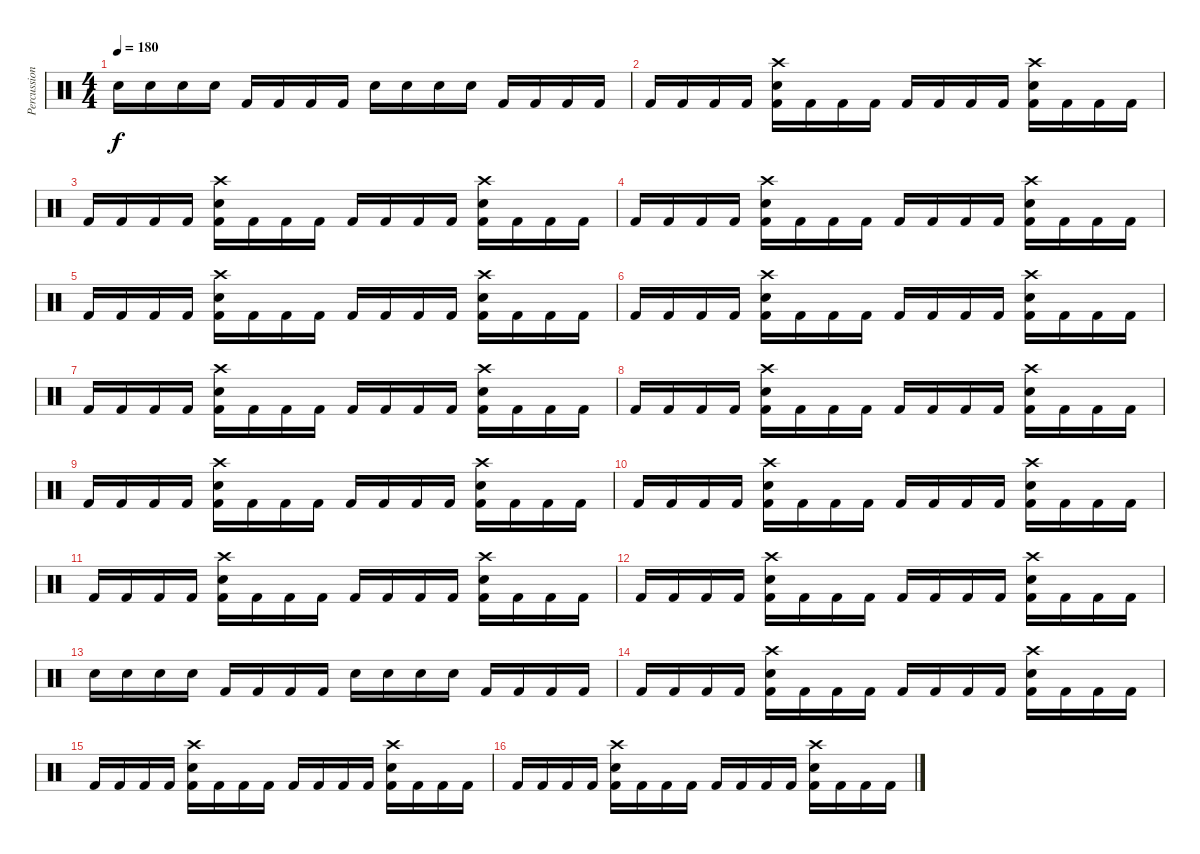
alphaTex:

\track ("Percussion" "Percussion") {instrument percussion}
\staff {score}
\articulation defaults
\ts (4 4)
\tempo 180
\clef neutral
\ks c "Electric Snare (hit)".16{dy f} "Electric Snare (hit)".16 "Electric Snare (hit)".16 "Electric Snare (hit)".16 "Kick (hit) 2".16 "Kick (hit) 2".16 "Kick (hit) 2".16 "Kick (hit) 2".16 "Snare (hit) 2".16 "Snare (hit) 2".16 "Snare (hit) 2".16 "Snare (hit) 2".16 "Kick (hit) 2".16 "Kick (hit) 2".16 "Kick (hit) 2".16 "Kick (hit) 2".16
|
"Kick (hit) 2".16 "Kick (hit) 2".16 "Kick (hit) 2".16 "Kick (hit) 2".16 ("Crash high (hit)" "Kick (hit) 2" "Snare (hit) 2").16 "Kick (hit) 2".16 "Kick (hit) 2".16 "Kick (hit) 2".16 "Kick (hit) 2".16 "Kick (hit) 2".16 "Kick (hit) 2".16 "Kick (hit) 2".16 ("Crash high (hit)" "Kick (hit) 2" "Snare (hit) 2").16 "Kick (hit) 2".16 "Kick (hit) 2".16 "Kick (hit) 2".16 |
"Kick (hit) 2".16 "Kick (hit) 2".16 "Kick (hit) 2".16 "Kick (hit) 2".16 ("Crash high (hit)" "Kick (hit) 2" "Snare (hit) 2").16 "Kick (hit) 2".16 "Kick (hit) 2".16 "Kick (hit) 2".16 "Kick (hit) 2".16 "Kick (hit) 2".16 "Kick (hit) 2".16 "Kick (hit) 2".16 ("Crash high (hit)" "Kick (hit) 2" "Snare (hit) 2").16 "Kick (hit) 2".16 "Kick (hit) 2".16 "Kick (hit) 2".16 |
"Kick (hit) 2".16 "Kick (hit) 2".16 "Kick (hit) 2".16 "Kick (hit) 2".16 ("Crash high (hit)" "Kick (hit) 2" "Snare (hit) 2").16 "Kick (hit) 2".16 "Kick (hit) 2".16 "Kick (hit) 2".16 "Kick (hit) 2".16 "Kick (hit) 2".16 "Kick (hit) 2".16 "Kick (hit) 2".16 ("Crash high (hit)" "Kick (hit) 2" "Snare (hit) 2").16 "Kick (hit) 2".16 "Kick (hit) 2".16 "Kick (hit) 2".16 |
"Kick (hit) 2".16 "Kick (hit) 2".16 "Kick (hit) 2".16 "Kick (hit) 2".16 ("Crash high (hit)" "Kick (hit) 2" "Snare (hit) 2").16 "Kick (hit) 2".16 "Kick (hit) 2".16 "Kick (hit) 2".16 "Kick (hit) 2".16 "Kick (hit) 2".16 "Kick (hit) 2".16 "Kick (hit) 2".16 ("Crash high (hit)" "Kick (hit) 2" "Snare (hit) 2").16 "Kick (hit) 2".16 "Kick (hit) 2".16 "Kick (hit) 2".16 |
"Kick (hit) 2".16 "Kick (hit) 2".16 "Kick (hit) 2".16 "Kick (hit) 2".16 ("Crash high (hit)" "Kick (hit) 2" "Snare (hit) 2").16 "Kick (hit) 2".16 "Kick (hit) 2".16 "Kick (hit) 2".16 "Kick (hit) 2".16 "Kick (hit) 2".16 "Kick (hit) 2".16 "Kick (hit) 2".16 ("Crash high (hit)" "Kick (hit) 2" "Snare (hit) 2").16 "Kick (hit) 2".16 "Kick (hit) 2".16 "Kick (hit) 2".16 |
"Kick (hit) 2".16 "Kick (hit) 2".16 "Kick (hit) 2".16 "Kick (hit) 2".16 ("Crash high (hit)" "Kick (hit) 2" "Snare (hit) 2").16 "Kick (hit) 2".16 "Kick (hit) 2".16 "Kick (hit) 2".16 "Kick (hit) 2".16 "Kick (hit) 2".16 "Kick (hit) 2".16 "Kick (hit) 2".16 ("Crash high (hit)" "Kick (hit) 2" "Snare (hit) 2").16 "Kick (hit) 2".16 "Kick (hit) 2".16 "Kick (hit) 2".16 |
"Kick (hit) 2".16 "Kick (hit) 2".16 "Kick (hit) 2".16 "Kick (hit) 2".16 ("Crash high (hit)" "Kick (hit) 2" "Snare (hit) 2").16 "Kick (hit) 2".16 "Kick (hit) 2".16 "Kick (hit) 2".16 "Kick (hit) 2".16 "Kick (hit) 2".16 "Kick (hit) 2".16 "Kick (hit) 2".16 ("Crash high (hit)" "Kick (hit) 2" "Snare (hit) 2").16 "Kick (hit) 2".16 "Kick (hit) 2".16 "Kick (hit) 2".16 |
"Kick (hit) 2".16 "Kick (hit) 2".16 "Kick (hit) 2".16 "Kick (hit) 2".16 ("Crash high (hit)" "Kick (hit) 2" "Snare (hit) 2").16 "Kick (hit) 2".16 "Kick (hit) 2".16 "Kick (hit) 2".16 "Kick (hit) 2".16 "Kick (hit) 2".16 "Kick (hit) 2".16 "Kick (hit) 2".16 ("Crash high (hit)" "Kick (hit) 2" "Snare (hit) 2").16 "Kick (hit) 2".16 "Kick (hit) 2".16 "Kick (hit) 2".16 |
"Kick (hit) 2".16 "Kick (hit) 2".16 "Kick (hit) 2".16 "Kick (hit) 2".16 ("Crash high (hit)" "Kick (hit) 2" "Snare (hit) 2").16 "Kick (hit) 2".16 "Kick (hit) 2".16 "Kick (hit) 2".16 "Kick (hit) 2".16 "Kick (hit) 2".16 "Kick (hit) 2".16 "Kick (hit) 2".16 ("Crash high (hit)" "Kick (hit) 2" "Snare (hit) 2").16 "Kick (hit) 2".16 "Kick (hit) 2".16 "Kick (hit) 2".16 |
"Kick (hit) 2".16 "Kick (hit) 2".16 "Kick (hit) 2".16 "Kick (hit) 2".16 ("Crash high (hit)" "Kick (hit) 2" "Snare (hit) 2").16 "Kick (hit) 2".16 "Kick (hit) 2".16 "Kick (hit) 2".16 "Kick (hit) 2".16 "Kick (hit) 2".16 "Kick (hit) 2".16 "Kick (hit) 2".16 ("Crash high (hit)" "Kick (hit) 2" "Snare (hit) 2").16 "Kick (hit) 2".16 "Kick (hit) 2".16 "Kick (hit) 2".16 |
"Kick (hit) 2".16 "Kick (hit) 2".16 "Kick (hit) 2".16 "Kick (hit) 2".16 ("Crash high (hit)" "Kick (hit) 2" "Snare (hit) 2").16 "Kick (hit) 2".16 "Kick (hit) 2".16 "Kick (hit) 2".16 "Kick (hit) 2".16 "Kick (hit) 2".16 "Kick (hit) 2".16 "Kick (hit) 2".16 ("Crash high (hit)" "Kick (hit) 2" "Snare (hit) 2").16 "Kick (hit) 2".16 "Kick (hit) 2".16 "Kick (hit) 2".16 |
"Electric Snare (hit)".16 "Electric Snare (hit)".16 "Electric Snare (hit)".16 "Electric Snare (hit)".16 "Kick (hit) 2".16 "Kick (hit) 2".16 "Kick (hit) 2".16 "Kick (hit) 2".16 "Snare (hit) 2".16 "Snare (hit) 2".16 "Snare (hit) 2".16 "Snare (hit) 2".16 "Kick (hit) 2".16 "Kick (hit) 2".16 "Kick (hit) 2".16 "Kick (hit) 2".16 |
"Kick (hit) 2".16 "Kick (hit) 2".16 "Kick (hit) 2".16 "Kick (hit) 2".16 ("Crash high (hit)" "Kick (hit) 2" "Snare (hit) 2").16 "Kick (hit) 2".16 "Kick (hit) 2".16 "Kick (hit) 2".16 "Kick (hit) 2".16 "Kick (hit) 2".16 "Kick (hit) 2".16 "Kick (hit) 2".16 ("Crash high (hit)" "Kick (hit) 2" "Snare (hit) 2").16 "Kick (hit) 2".16 "Kick (hit) 2".16 "Kick (hit) 2".16 |
"Kick (hit) 2".16 "Kick (hit) 2".16 "Kick (hit) 2".16 "Kick (hit) 2".16 ("Crash high (hit)" "Kick (hit) 2" "Snare (hit) 2").16 "Kick (hit) 2".16 "Kick (hit) 2".16 "Kick (hit) 2".16 "Kick (hit) 2".16 "Kick (hit) 2".16 "Kick (hit) 2".16 "Kick (hit) 2".16 ("Crash high (hit)" "Kick (hit) 2" "Snare (hit) 2").16 "Kick (hit) 2".16 "Kick (hit) 2".16 "Kick (hit) 2".16 |
"Kick (hit) 2".16 "Kick (hit) 2".16 "Kick (hit) 2".16 "Kick (hit) 2".16 ("Crash high (hit)" "Kick (hit) 2" "Snare (hit) 2").16 "Kick (hit) 2".16 "Kick (hit) 2".16 "Kick (hit) 2".16 "Kick (hit) 2".16 "Kick (hit) 2".16 "Kick (hit) 2".16 "Kick (hit) 2".16 ("Crash high (hit)" "Kick (hit) 2" "Snare (hit) 2").16 "Kick (hit) 2".16 "Kick (hit) 2".16 "Kick (hit) 2".16
